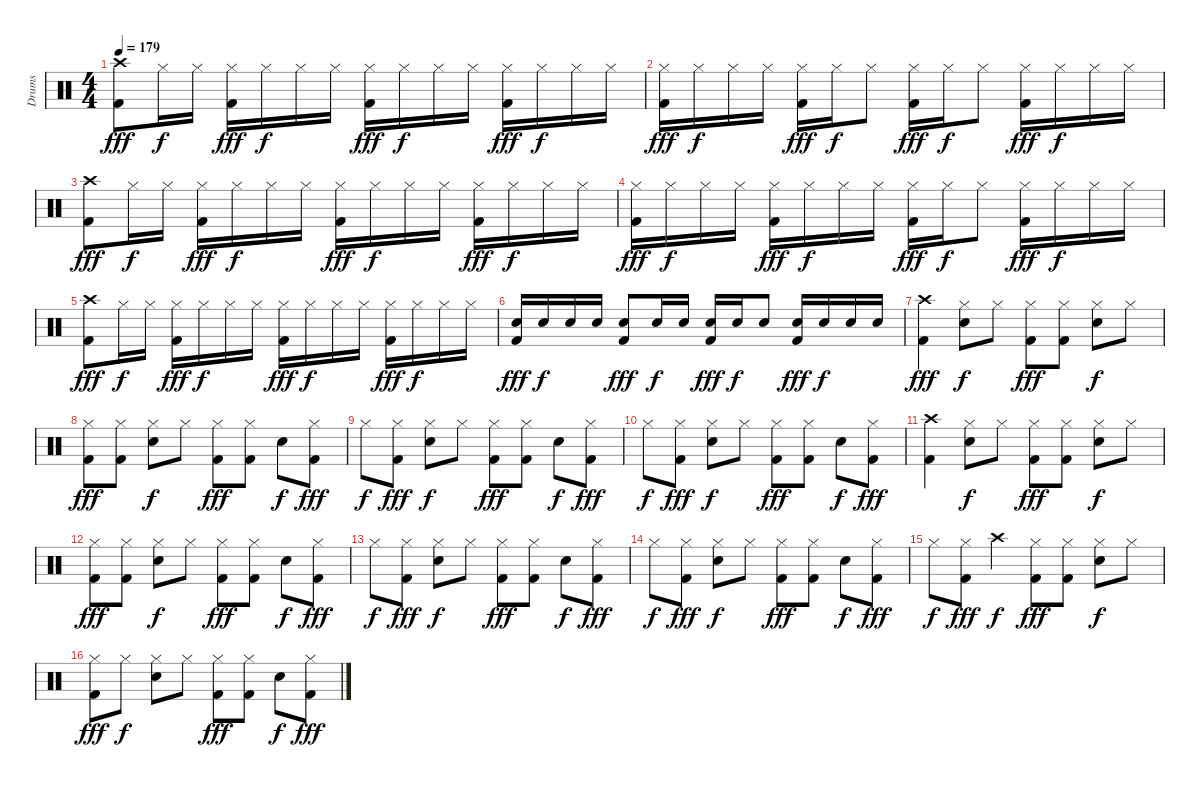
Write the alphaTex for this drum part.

\track ("Drums" "Drums") {instrument percussion}
\staff {score}
\articulation defaults
\ts (4 4)
\tempo 179
\clef neutral
\ks c
("Crash high (hit)" "Kick (hit) 2").8{dy fff} "Hi-Hat (closed)".16{dy f} "Hi-Hat (closed)".16 ("Hi-Hat (closed)" "Kick (hit) 2").16{dy fff} "Hi-Hat (closed)".16{dy f} "Hi-Hat (closed)".16 "Hi-Hat (closed)".16 ("Hi-Hat (closed)" "Kick (hit) 2").16{dy fff} "Hi-Hat (closed)".16{dy f} "Hi-Hat (closed)".16 "Hi-Hat (closed)".16 ("Hi-Hat (closed)" "Kick (hit) 2").16{dy fff} "Hi-Hat (closed)".16{dy f} "Hi-Hat (closed)".16 "Hi-Hat (closed)".16 |
("Hi-Hat (closed)" "Kick (hit) 2").16{dy fff} "Hi-Hat (closed)".16{dy f} "Hi-Hat (closed)".16 "Hi-Hat (closed)".16 ("Hi-Hat (closed)" "Kick (hit) 2").16{dy fff} "Hi-Hat (closed)".16{dy f} "Hi-Hat (closed)".8 ("Hi-Hat (closed)" "Kick (hit) 2").16{dy fff} "Hi-Hat (closed)".16{dy f} "Hi-Hat (closed)".8 ("Hi-Hat (closed)" "Kick (hit) 2").16{dy fff} "Hi-Hat (closed)".16{dy f} "Hi-Hat (closed)".16 "Hi-Hat (closed)".16 |
("Crash high (hit)" "Kick (hit) 2").8{dy fff} "Hi-Hat (closed)".16{dy f} "Hi-Hat (closed)".16 ("Hi-Hat (closed)" "Kick (hit) 2").16{dy fff} "Hi-Hat (closed)".16{dy f} "Hi-Hat (closed)".16 "Hi-Hat (closed)".16 ("Hi-Hat (closed)" "Kick (hit) 2").16{dy fff} "Hi-Hat (closed)".16{dy f} "Hi-Hat (closed)".16 "Hi-Hat (closed)".16 ("Hi-Hat (closed)" "Kick (hit) 2").16{dy fff} "Hi-Hat (closed)".16{dy f} "Hi-Hat (closed)".16 "Hi-Hat (closed)".16 |
("Hi-Hat (closed)" "Kick (hit) 2").16{dy fff} "Hi-Hat (closed)".16{dy f} "Hi-Hat (closed)".16 "Hi-Hat (closed)".16 ("Hi-Hat (closed)" "Kick (hit) 2").16{dy fff} "Hi-Hat (closed)".16{dy f} "Hi-Hat (closed)".16 "Hi-Hat (closed)".16 ("Hi-Hat (closed)" "Kick (hit) 2").16{dy fff} "Hi-Hat (closed)".16{dy f} "Hi-Hat (closed)".8 ("Hi-Hat (closed)" "Kick (hit) 2").16{dy fff} "Hi-Hat (closed)".16{dy f} "Hi-Hat (closed)".16 "Hi-Hat (closed)".16 |
("Crash high (hit)" "Kick (hit) 2").8{dy fff} "Hi-Hat (closed)".16{dy f} "Hi-Hat (closed)".16 ("Hi-Hat (closed)" "Kick (hit) 2").16{dy fff} "Hi-Hat (closed)".16{dy f} "Hi-Hat (closed)".16 "Hi-Hat (closed)".16 ("Hi-Hat (closed)" "Kick (hit) 2").16{dy fff} "Hi-Hat (closed)".16{dy f} "Hi-Hat (closed)".16 "Hi-Hat (closed)".16 ("Hi-Hat (closed)" "Kick (hit) 2").16{dy fff} "Hi-Hat (closed)".16{dy f} "Hi-Hat (closed)".16 "Hi-Hat (closed)".16 |
("Electric Snare (hit)" "Kick (hit) 2").16{dy fff} "Electric Snare (hit)".16{dy f} "Electric Snare (hit)".16 "Electric Snare (hit)".16 ("Electric Snare (hit)" "Kick (hit) 2").8{dy fff} "Electric Snare (hit)".16{dy f} "Electric Snare (hit)".16 ("Electric Snare (hit)" "Kick (hit) 2").16{dy fff} "Electric Snare (hit)".16{dy f} "Electric Snare (hit)".8 ("Electric Snare (hit)" "Kick (hit) 2").16{dy fff} "Electric Snare (hit)".16{dy f} "Electric Snare (hit)".16 "Electric Snare (hit)".16 |
("Crash high (hit)" "Kick (hit) 2").4{dy fff} ("Hi-Hat (closed)" "Electric Snare (hit)").8{dy f} "Hi-Hat (closed)".8 ("Hi-Hat (closed)" "Kick (hit) 2").8{dy fff} ("Hi-Hat (closed)" "Kick (hit) 2").8 ("Hi-Hat (closed)" "Electric Snare (hit)").8{dy f} "Hi-Hat (closed)".8 |
("Hi-Hat (closed)" "Kick (hit) 2").8{dy fff} ("Hi-Hat (closed)" "Kick (hit) 2").8 ("Hi-Hat (closed)" "Electric Snare (hit)").8{dy f} "Hi-Hat (closed)".8 ("Hi-Hat (closed)" "Kick (hit) 2").8{dy fff} ("Hi-Hat (closed)" "Kick (hit) 2").8 "Electric Snare (hit)".8{dy f} ("Hi-Hat (closed)" "Kick (hit) 2").8{dy fff} |
"Hi-Hat (closed)".8{dy f} ("Hi-Hat (closed)" "Kick (hit) 2").8{dy fff} ("Hi-Hat (closed)" "Electric Snare (hit)").8{dy f} "Hi-Hat (closed)".8 ("Hi-Hat (closed)" "Kick (hit) 2").8{dy fff} ("Hi-Hat (closed)" "Kick (hit) 2").8 "Electric Snare (hit)".8{dy f} ("Hi-Hat (closed)" "Kick (hit) 2").8{dy fff} |
"Hi-Hat (closed)".8{dy f} ("Hi-Hat (closed)" "Kick (hit) 2").8{dy fff} ("Hi-Hat (closed)" "Electric Snare (hit)").8{dy f} "Hi-Hat (closed)".8 ("Hi-Hat (closed)" "Kick (hit) 2").8{dy fff} ("Hi-Hat (closed)" "Kick (hit) 2").8 "Electric Snare (hit)".8{dy f} ("Hi-Hat (closed)" "Kick (hit) 2").8{dy fff} |
("Crash high (hit)" "Kick (hit) 2").4 ("Hi-Hat (closed)" "Electric Snare (hit)").8{dy f} "Hi-Hat (closed)".8 ("Hi-Hat (closed)" "Kick (hit) 2").8{dy fff} ("Hi-Hat (closed)" "Kick (hit) 2").8 ("Hi-Hat (closed)" "Electric Snare (hit)").8{dy f} "Hi-Hat (closed)".8 |
("Hi-Hat (closed)" "Kick (hit) 2").8{dy fff} ("Hi-Hat (closed)" "Kick (hit) 2").8 ("Hi-Hat (closed)" "Electric Snare (hit)").8{dy f} "Hi-Hat (closed)".8 ("Hi-Hat (closed)" "Kick (hit) 2").8{dy fff} ("Hi-Hat (closed)" "Kick (hit) 2").8 "Electric Snare (hit)".8{dy f} ("Hi-Hat (closed)" "Kick (hit) 2").8{dy fff} |
"Hi-Hat (closed)".8{dy f} ("Hi-Hat (closed)" "Kick (hit) 2").8{dy fff} ("Hi-Hat (closed)" "Electric Snare (hit)").8{dy f} "Hi-Hat (closed)".8 ("Hi-Hat (closed)" "Kick (hit) 2").8{dy fff} ("Hi-Hat (closed)" "Kick (hit) 2").8 "Electric Snare (hit)".8{dy f} ("Hi-Hat (closed)" "Kick (hit) 2").8{dy fff} |
"Hi-Hat (closed)".8{dy f} ("Hi-Hat (closed)" "Kick (hit) 2").8{dy fff} ("Hi-Hat (closed)" "Electric Snare (hit)").8{dy f} "Hi-Hat (closed)".8 ("Hi-Hat (closed)" "Kick (hit) 2").8{dy fff} ("Hi-Hat (closed)" "Kick (hit) 2").8 "Electric Snare (hit)".8{dy f} ("Hi-Hat (closed)" "Kick (hit) 2").8{dy fff} |
"Hi-Hat (closed)".8{dy f} ("Hi-Hat (closed)" "Kick (hit) 2").8{dy fff} "Crash high (hit)".4{dy f} ("Hi-Hat (closed)" "Kick (hit) 2").8{dy fff} ("Hi-Hat (closed)" "Kick (hit) 2").8 ("Hi-Hat (closed)" "Electric Snare (hit)").8{dy f} "Hi-Hat (closed)".8 |
("Hi-Hat (closed)" "Kick (hit) 2").8{dy fff} "Hi-Hat (closed)".8{dy f} ("Hi-Hat (closed)" "Electric Snare (hit)").8 "Hi-Hat (closed)".8 ("Hi-Hat (closed)" "Kick (hit) 2").8{dy fff} ("Hi-Hat (closed)" "Kick (hit) 2").8 "Electric Snare (hit)".8{dy f} ("Hi-Hat (closed)" "Kick (hit) 2").8{dy fff}
